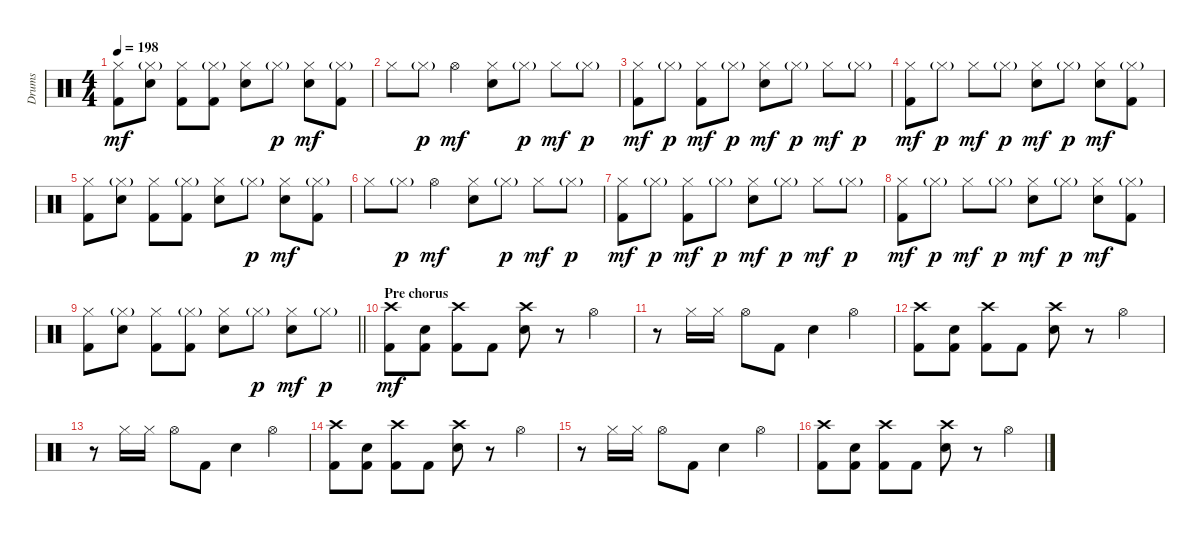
\track ("Drums" "Drums") {instrument percussion}
\staff {score}
\articulation defaults
\ts (4 4)
\tempo 198
\clef neutral
\ks c
("Hi-Hat (closed)" "Kick (hit) 2").8{dy mf} ("Hi-Hat (closed)"{g} "Snare (hit) 2").8 ("Hi-Hat (closed)" "Kick (hit) 2").8 ("Hi-Hat (closed)"{g} "Kick (hit) 2").8 ("Hi-Hat (closed)" "Snare (hit) 2").8 "Hi-Hat (closed)"{g}.8{dy p} ("Hi-Hat (closed)" "Snare (hit) 2").8{dy mf} ("Hi-Hat (closed)"{g} "Kick (hit) 2").8 |
"Hi-Hat (closed)".8 "Hi-Hat (closed)"{g}.8{dy p} "Hi-Hat (open)".4{dy mf} ("Hi-Hat (closed)" "Snare (hit) 2").8 "Hi-Hat (closed)"{g}.8{dy p} "Hi-Hat (closed)".8{dy mf} "Hi-Hat (closed)"{g}.8{dy p} |
("Hi-Hat (closed)" "Kick (hit) 2").8{dy mf} "Hi-Hat (closed)"{g}.8{dy p} ("Hi-Hat (closed)" "Kick (hit) 2").8{dy mf} "Hi-Hat (closed)"{g}.8{dy p} ("Hi-Hat (closed)" "Snare (hit) 2").8{dy mf} "Hi-Hat (closed)"{g}.8{dy p} "Hi-Hat (closed)".8{dy mf} "Hi-Hat (closed)"{g}.8{dy p} |
("Hi-Hat (closed)" "Kick (hit) 2").8{dy mf} "Hi-Hat (closed)"{g}.8{dy p} "Hi-Hat (closed)".8{dy mf} "Hi-Hat (closed)"{g}.8{dy p} ("Hi-Hat (closed)" "Snare (hit) 2").8{dy mf} "Hi-Hat (closed)"{g}.8{dy p} ("Hi-Hat (closed)" "Snare (hit) 2").8{dy mf} ("Hi-Hat (closed)"{g} "Kick (hit) 2").8 |
("Hi-Hat (closed)" "Kick (hit) 2").8 ("Hi-Hat (closed)"{g} "Snare (hit) 2").8 ("Hi-Hat (closed)" "Kick (hit) 2").8 ("Hi-Hat (closed)"{g} "Kick (hit) 2").8 ("Hi-Hat (closed)" "Snare (hit) 2").8 "Hi-Hat (closed)"{g}.8{dy p} ("Hi-Hat (closed)" "Snare (hit) 2").8{dy mf} ("Hi-Hat (closed)"{g} "Kick (hit) 2").8 |
"Hi-Hat (closed)".8 "Hi-Hat (closed)"{g}.8{dy p} "Hi-Hat (open)".4{dy mf} ("Hi-Hat (closed)" "Snare (hit) 2").8 "Hi-Hat (closed)"{g}.8{dy p} "Hi-Hat (closed)".8{dy mf} "Hi-Hat (closed)"{g}.8{dy p} |
("Hi-Hat (closed)" "Kick (hit) 2").8{dy mf} "Hi-Hat (closed)"{g}.8{dy p} ("Hi-Hat (closed)" "Kick (hit) 2").8{dy mf} "Hi-Hat (closed)"{g}.8{dy p} ("Hi-Hat (closed)" "Snare (hit) 2").8{dy mf} "Hi-Hat (closed)"{g}.8{dy p} "Hi-Hat (closed)".8{dy mf} "Hi-Hat (closed)"{g}.8{dy p} |
("Hi-Hat (closed)" "Kick (hit) 2").8{dy mf} "Hi-Hat (closed)"{g}.8{dy p} "Hi-Hat (closed)".8{dy mf} "Hi-Hat (closed)"{g}.8{dy p} ("Hi-Hat (closed)" "Snare (hit) 2").8{dy mf} "Hi-Hat (closed)"{g}.8{dy p} ("Hi-Hat (closed)" "Snare (hit) 2").8{dy mf} ("Hi-Hat (closed)"{g} "Kick (hit) 2").8 |
\barLineRight lightlight
("Hi-Hat (closed)" "Kick (hit) 2").8 ("Hi-Hat (closed)"{g} "Snare (hit) 2").8 ("Hi-Hat (closed)" "Kick (hit) 2").8 ("Hi-Hat (closed)"{g} "Kick (hit) 2").8 ("Hi-Hat (closed)" "Snare (hit) 2").8 "Hi-Hat (closed)"{g}.8{dy p} ("Hi-Hat (closed)" "Snare (hit) 2").8{dy mf} "Hi-Hat (closed)"{g}.8{dy p} |
\section ("" "Pre chorus")
("Crash high (hit)" "Kick (hit) 2").8{dy mf} ("Snare (hit) 2" "Kick (hit) 2").8 ("Crash high (hit)" "Kick (hit) 2").8 "Kick (hit) 2".8 ("Crash high (hit)" "Snare (hit) 2").8 r.8 "Hi-Hat (open)".4 |
r.8 "Hi-Hat (closed)".16 "Hi-Hat (closed)".16 "Hi-Hat (open)".8 "Kick (hit) 2".8 "Snare (hit) 2".4 "Hi-Hat (open)".4 |
("Crash high (hit)" "Kick (hit) 2").8 ("Snare (hit) 2" "Kick (hit) 2").8 ("Crash high (hit)" "Kick (hit) 2").8 "Kick (hit) 2".8 ("Crash high (hit)" "Snare (hit) 2").8 r.8 "Hi-Hat (open)".4 |
r.8 "Hi-Hat (closed)".16 "Hi-Hat (closed)".16 "Hi-Hat (open)".8 "Kick (hit) 2".8 "Snare (hit) 2".4 "Hi-Hat (open)".4 |
("Crash high (hit)" "Kick (hit) 2").8 ("Snare (hit) 2" "Kick (hit) 2").8 ("Crash high (hit)" "Kick (hit) 2").8 "Kick (hit) 2".8 ("Crash high (hit)" "Snare (hit) 2").8 r.8 "Hi-Hat (open)".4 |
r.8 "Hi-Hat (closed)".16 "Hi-Hat (closed)".16 "Hi-Hat (open)".8 "Kick (hit) 2".8 "Snare (hit) 2".4 "Hi-Hat (open)".4 |
("Crash high (hit)" "Kick (hit) 2").8 ("Snare (hit) 2" "Kick (hit) 2").8 ("Crash high (hit)" "Kick (hit) 2").8 "Kick (hit) 2".8 ("Crash high (hit)" "Snare (hit) 2").8 r.8 "Hi-Hat (open)".4
